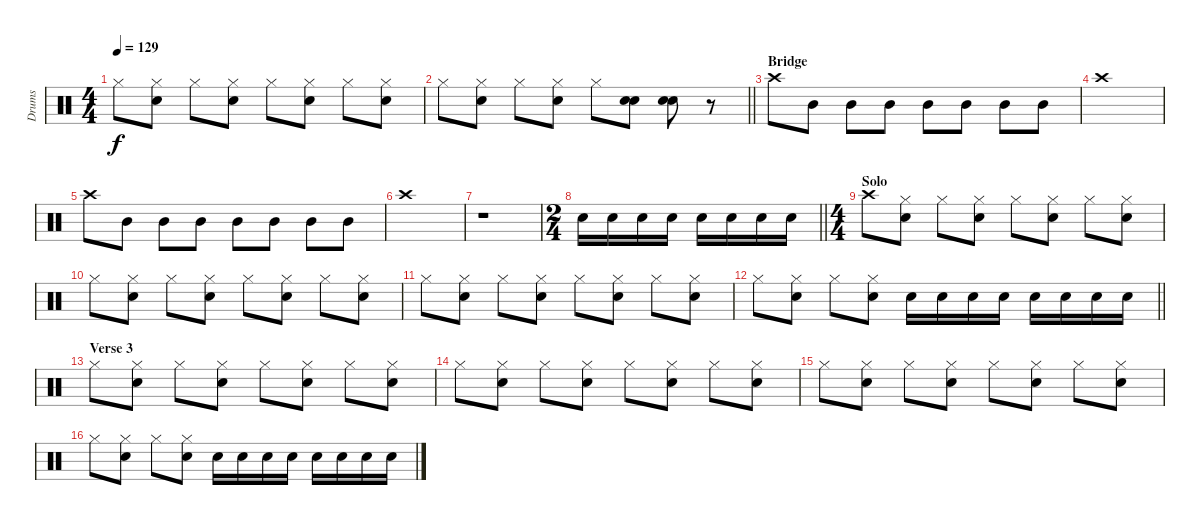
\track ("Drums" "Drums") {instrument percussion}
\staff {score}
\articulation defaults
\ts (4 4)
\tempo 129
\clef neutral
\ks c "Hi-Hat (closed)".8{dy f}
("Hi-Hat (closed)" "Electric Snare (hit)").8 "Hi-Hat (closed)".8 ("Hi-Hat (closed)" "Electric Snare (hit)").8 "Hi-Hat (closed)".8 ("Hi-Hat (closed)" "Electric Snare (hit)").8 "Hi-Hat (closed)".8 ("Hi-Hat (closed)" "Electric Snare (hit)").8 |
\barLineRight lightlight "Hi-Hat (closed)".8
("Hi-Hat (closed)" "Electric Snare (hit)").8 "Hi-Hat (closed)".8 ("Hi-Hat (closed)" "Electric Snare (hit)").8 "Hi-Hat (closed)".8 ("Electric Snare (hit)" "Electric Snare (hit)").8 ("Electric Snare (hit)" "Electric Snare (hit)").8 r.8 |
\section ("" "Bridge")
"Crash high (hit)".8 "Mid Tom (hit)".8 "Mid Tom (hit)".8 "Mid Tom (hit)".8 "Mid Tom (hit)".8 "Mid Tom (hit)".8 "Mid Tom (hit)".8 "Mid Tom (hit)".8 |
"Crash high (hit)".1 |
"Crash high (hit)".8 "Mid Tom (hit)".8 "Mid Tom (hit)".8 "Mid Tom (hit)".8 "Mid Tom (hit)".8 "Mid Tom (hit)".8 "Mid Tom (hit)".8 "Mid Tom (hit)".8 |
"Crash high (hit)".1 |
r.1 |
\ts (2 4)
\barLineRight lightlight "Electric Snare (hit)".16 "Electric Snare (hit)".16 "Electric Snare (hit)".16 "Electric Snare (hit)".16 "Electric Snare (hit)".16 "Electric Snare (hit)".16 "Electric Snare (hit)".16 "Electric Snare (hit)".16
|
\ts (4 4)
\section ("" "Solo")
"Crash high (hit)".8 ("Hi-Hat (closed)" "Electric Snare (hit)").8 "Hi-Hat (closed)".8 ("Hi-Hat (closed)" "Electric Snare (hit)").8 "Hi-Hat (closed)".8 ("Hi-Hat (closed)" "Electric Snare (hit)").8 "Hi-Hat (closed)".8 ("Hi-Hat (closed)" "Electric Snare (hit)").8 |
"Hi-Hat (closed)".8 ("Hi-Hat (closed)" "Electric Snare (hit)").8 "Hi-Hat (closed)".8 ("Hi-Hat (closed)" "Electric Snare (hit)").8 "Hi-Hat (closed)".8 ("Hi-Hat (closed)" "Electric Snare (hit)").8 "Hi-Hat (closed)".8 ("Hi-Hat (closed)" "Electric Snare (hit)").8 |
"Hi-Hat (closed)".8 ("Hi-Hat (closed)" "Electric Snare (hit)").8 "Hi-Hat (closed)".8 ("Hi-Hat (closed)" "Electric Snare (hit)").8 "Hi-Hat (closed)".8 ("Hi-Hat (closed)" "Electric Snare (hit)").8 "Hi-Hat (closed)".8 ("Hi-Hat (closed)" "Electric Snare (hit)").8 |
\barLineRight lightlight "Hi-Hat (closed)".8
("Hi-Hat (closed)" "Electric Snare (hit)").8 "Hi-Hat (closed)".8 ("Hi-Hat (closed)" "Electric Snare (hit)").8 "Electric Snare (hit)".16 "Electric Snare (hit)".16 "Electric Snare (hit)".16 "Electric Snare (hit)".16 "Electric Snare (hit)".16 "Electric Snare (hit)".16 "Electric Snare (hit)".16 "Electric Snare (hit)".16 |
\section ("" "Verse 3")
"Hi-Hat (closed)".8 ("Hi-Hat (closed)" "Electric Snare (hit)").8 "Hi-Hat (closed)".8 ("Hi-Hat (closed)" "Electric Snare (hit)").8 "Hi-Hat (closed)".8 ("Hi-Hat (closed)" "Electric Snare (hit)").8 "Hi-Hat (closed)".8 ("Hi-Hat (closed)" "Electric Snare (hit)").8 |
"Hi-Hat (closed)".8 ("Hi-Hat (closed)" "Electric Snare (hit)").8 "Hi-Hat (closed)".8 ("Hi-Hat (closed)" "Electric Snare (hit)").8 "Hi-Hat (closed)".8 ("Hi-Hat (closed)" "Electric Snare (hit)").8 "Hi-Hat (closed)".8 ("Hi-Hat (closed)" "Electric Snare (hit)").8 |
"Hi-Hat (closed)".8 ("Hi-Hat (closed)" "Electric Snare (hit)").8 "Hi-Hat (closed)".8 ("Hi-Hat (closed)" "Electric Snare (hit)").8 "Hi-Hat (closed)".8 ("Hi-Hat (closed)" "Electric Snare (hit)").8 "Hi-Hat (closed)".8 ("Hi-Hat (closed)" "Electric Snare (hit)").8 |
"Hi-Hat (closed)".8 ("Hi-Hat (closed)" "Electric Snare (hit)").8 "Hi-Hat (closed)".8 ("Hi-Hat (closed)" "Electric Snare (hit)").8 "Electric Snare (hit)".16 "Electric Snare (hit)".16 "Electric Snare (hit)".16 "Electric Snare (hit)".16 "Electric Snare (hit)".16 "Electric Snare (hit)".16 "Electric Snare (hit)".16 "Electric Snare (hit)".16
